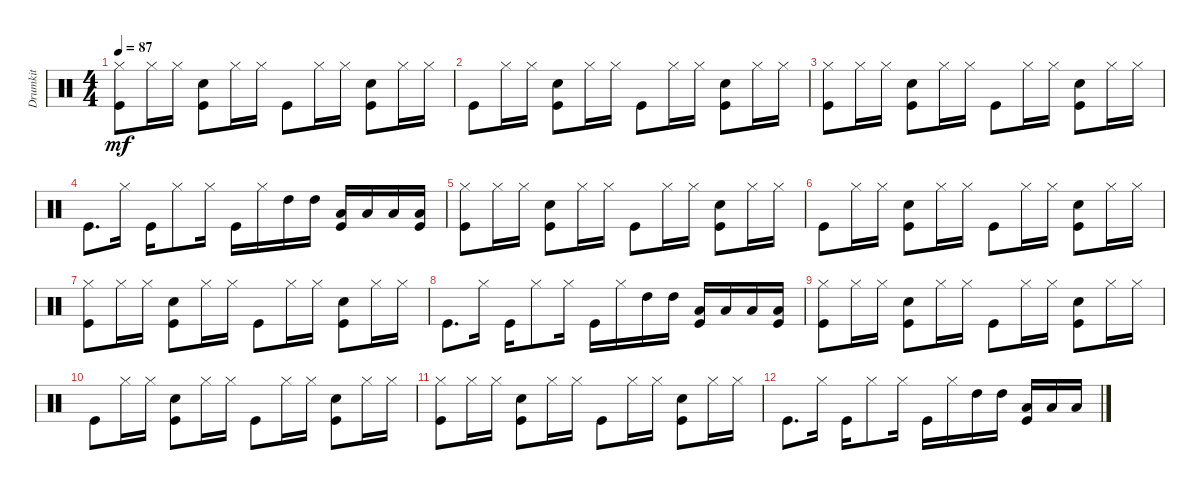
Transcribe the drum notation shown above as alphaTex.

\track ("Drumkit" "Drumkit") {instrument percussion}
\staff {score}
\articulation defaults
\ts (4 4)
\tempo 87
\clef neutral
\ks c
("Kick (hit)" "Hi-Hat (closed)").8{dy mf} "Hi-Hat (closed)".16 "Hi-Hat (closed)".16 ("Kick (hit)" "Snare (hit) 2").8 "Hi-Hat (closed)".16 "Hi-Hat (closed)".16 "Kick (hit)".8 "Hi-Hat (closed)".16 "Hi-Hat (closed)".16 ("Snare (hit) 2" "Kick (hit)").8 "Hi-Hat (closed)".16 "Hi-Hat (closed)".16 |
"Kick (hit)".8 "Hi-Hat (closed)".16 "Hi-Hat (closed)".16 ("Kick (hit)" "Snare (hit) 2").8 "Hi-Hat (closed)".16 "Hi-Hat (closed)".16 "Kick (hit)".8 "Hi-Hat (closed)".16 "Hi-Hat (closed)".16 ("Kick (hit)" "Snare (hit) 2").8 "Hi-Hat (closed)".16 "Hi-Hat (closed)".16 |
("Kick (hit)" "Hi-Hat (closed)").8 "Hi-Hat (closed)".16 "Hi-Hat (closed)".16 ("Kick (hit)" "Snare (hit) 2").8 "Hi-Hat (closed)".16 "Hi-Hat (closed)".16 "Kick (hit)".8 "Hi-Hat (closed)".16 "Hi-Hat (closed)".16 ("Snare (hit) 2" "Kick (hit)").8 "Hi-Hat (closed)".16 "Hi-Hat (closed)".16 |
"Kick (hit)".8{d} "Hi-Hat (closed)".16 "Kick (hit)".16 "Hi-Hat (closed)".8 "Hi-Hat (closed)".16 "Kick (hit)".16 "Hi-Hat (closed)".16 "High Tom (hit)".16 "High Tom (hit)".16 ("Kick (hit)" "Low Tom (hit)").16 "Low Tom (hit)".16 "Low Floor Tom (hit)".16 ("Kick (hit)" "Low Floor Tom (hit)").16 |
("Kick (hit)" "Hi-Hat (closed)").8 "Hi-Hat (closed)".16 "Hi-Hat (closed)".16 ("Kick (hit)" "Snare (hit) 2").8 "Hi-Hat (closed)".16 "Hi-Hat (closed)".16 "Kick (hit)".8 "Hi-Hat (closed)".16 "Hi-Hat (closed)".16 ("Snare (hit) 2" "Kick (hit)").8 "Hi-Hat (closed)".16 "Hi-Hat (closed)".16 |
"Kick (hit)".8 "Hi-Hat (closed)".16 "Hi-Hat (closed)".16 ("Kick (hit)" "Snare (hit) 2").8 "Hi-Hat (closed)".16 "Hi-Hat (closed)".16 "Kick (hit)".8 "Hi-Hat (closed)".16 "Hi-Hat (closed)".16 ("Kick (hit)" "Snare (hit) 2").8 "Hi-Hat (closed)".16 "Hi-Hat (closed)".16 |
("Kick (hit)" "Hi-Hat (closed)").8 "Hi-Hat (closed)".16 "Hi-Hat (closed)".16 ("Kick (hit)" "Snare (hit) 2").8 "Hi-Hat (closed)".16 "Hi-Hat (closed)".16 "Kick (hit)".8 "Hi-Hat (closed)".16 "Hi-Hat (closed)".16 ("Snare (hit) 2" "Kick (hit)").8 "Hi-Hat (closed)".16 "Hi-Hat (closed)".16 |
"Kick (hit)".8{d} "Hi-Hat (closed)".16 "Kick (hit)".16 "Hi-Hat (closed)".8 "Hi-Hat (closed)".16 "Kick (hit)".16 "Hi-Hat (closed)".16 "High Tom (hit)".16 "High Tom (hit)".16 ("Kick (hit)" "Low Tom (hit)").16 "Low Tom (hit)".16 "Low Floor Tom (hit)".16 ("Kick (hit)" "Low Floor Tom (hit)").16 |
("Kick (hit)" "Hi-Hat (closed)").8 "Hi-Hat (closed)".16 "Hi-Hat (closed)".16 ("Kick (hit)" "Snare (hit) 2").8 "Hi-Hat (closed)".16 "Hi-Hat (closed)".16 "Kick (hit)".8 "Hi-Hat (closed)".16 "Hi-Hat (closed)".16 ("Snare (hit) 2" "Kick (hit)").8 "Hi-Hat (closed)".16 "Hi-Hat (closed)".16 |
"Kick (hit)".8 "Hi-Hat (closed)".16 "Hi-Hat (closed)".16 ("Kick (hit)" "Snare (hit) 2").8 "Hi-Hat (closed)".16 "Hi-Hat (closed)".16 "Kick (hit)".8 "Hi-Hat (closed)".16 "Hi-Hat (closed)".16 ("Kick (hit)" "Snare (hit) 2").8 "Hi-Hat (closed)".16 "Hi-Hat (closed)".16 |
("Kick (hit)" "Hi-Hat (closed)").8 "Hi-Hat (closed)".16 "Hi-Hat (closed)".16 ("Kick (hit)" "Snare (hit) 2").8 "Hi-Hat (closed)".16 "Hi-Hat (closed)".16 "Kick (hit)".8 "Hi-Hat (closed)".16 "Hi-Hat (closed)".16 ("Snare (hit) 2" "Kick (hit)").8 "Hi-Hat (closed)".16 "Hi-Hat (closed)".16 |
"Kick (hit)".8{d} "Hi-Hat (closed)".16 "Kick (hit)".16 "Hi-Hat (closed)".8 "Hi-Hat (closed)".16 "Kick (hit)".16 "Hi-Hat (closed)".16 "High Tom (hit)".16 "High Tom (hit)".16 ("Kick (hit)" "Low Tom (hit)").16 "Low Tom (hit)".16 "Low Floor Tom (hit)".16
